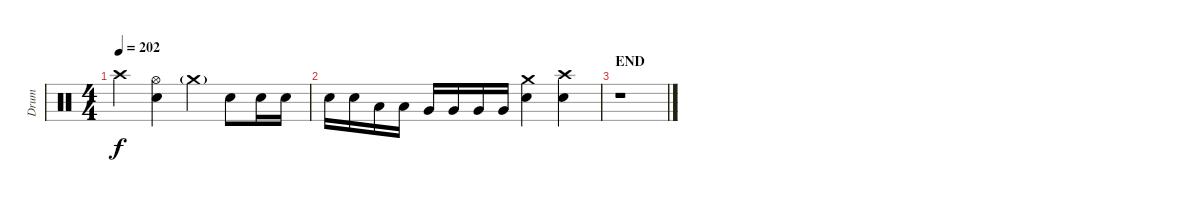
\track ("Drum" "Drum") {instrument percussion}
\staff {score}
\articulation defaults
\ts (4 4)
\tempo 202
\clef neutral
\ks c "Crash high (hit)".4{dy f}
("Hi-Hat (open)" "Electric Snare (hit)").4 "Crash medium (hit)"{g}.4 "Electric Snare (hit)".8 "Electric Snare (hit)".16 "Electric Snare (hit)".16 |
"Electric Snare (hit)".16 "Electric Snare (hit)".16 "Low Tom (hit)".16 "Low Tom (hit)".16 "Very Low Tom (hit)".16 "Very Low Tom (hit)".16 "Very Low Tom (hit)".16 "Very Low Tom (hit)".16 ("Crash medium (hit)" "Electric Snare (hit)").4 ("Crash high (hit)" "Electric Snare (hit)").4 |
\section ("" "END")
r.1
